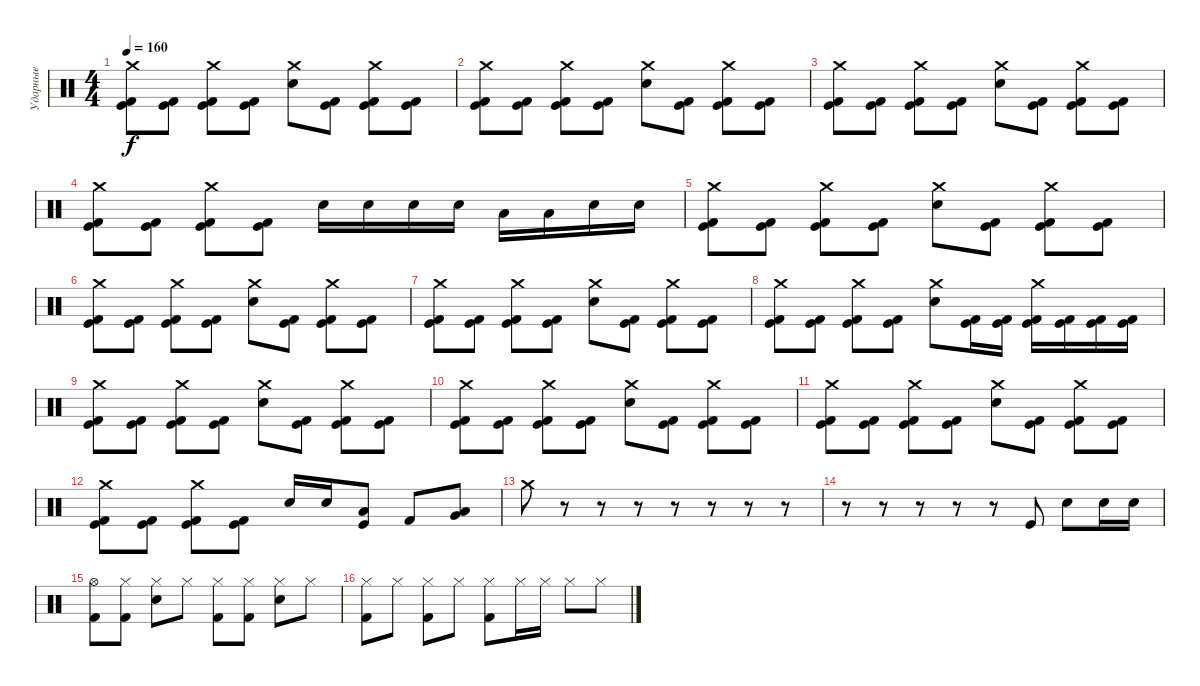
\track ("Ударные" "Ударные") {instrument percussion}
\staff {score}
\articulation defaults
\ts (4 4)
\tempo 160
\clef neutral
\ks c
("Crash medium (hit)" "Kick (hit)" "Kick (hit) 2").8{dy f} ("Kick (hit)" "Kick (hit) 2").8 ("Crash medium (hit)" "Kick (hit)" "Kick (hit) 2").8 ("Kick (hit)" "Kick (hit) 2").8 ("Crash medium (hit)" "Snare (hit) 2").8 ("Kick (hit)" "Kick (hit) 2").8 ("Crash medium (hit)" "Kick (hit)" "Kick (hit) 2").8 ("Kick (hit)" "Kick (hit) 2").8 |
("Crash medium (hit)" "Kick (hit)" "Kick (hit) 2").8 ("Kick (hit)" "Kick (hit) 2").8 ("Crash medium (hit)" "Kick (hit)" "Kick (hit) 2").8 ("Kick (hit)" "Kick (hit) 2").8 ("Crash medium (hit)" "Snare (hit) 2").8 ("Kick (hit)" "Kick (hit) 2").8 ("Crash medium (hit)" "Kick (hit)" "Kick (hit) 2").8 ("Kick (hit)" "Kick (hit) 2").8 |
("Crash medium (hit)" "Kick (hit)" "Kick (hit) 2").8 ("Kick (hit)" "Kick (hit) 2").8 ("Crash medium (hit)" "Kick (hit)" "Kick (hit) 2").8 ("Kick (hit)" "Kick (hit) 2").8 ("Crash medium (hit)" "Snare (hit) 2").8 ("Kick (hit)" "Kick (hit) 2").8 ("Crash medium (hit)" "Kick (hit)" "Kick (hit) 2").8 ("Kick (hit)" "Kick (hit) 2").8 |
("Crash medium (hit)" "Kick (hit)" "Kick (hit) 2").8 ("Kick (hit)" "Kick (hit) 2").8 ("Crash medium (hit)" "Kick (hit)" "Kick (hit) 2").8 ("Kick (hit)" "Kick (hit) 2").8 "Snare (hit) 2".16 "Snare (hit) 2".16 "Snare (hit) 2".16 "Snare (hit) 2".16 "Low Tom (hit)".16 "Low Tom (hit)".16 "Snare (hit) 2".16 "Snare (hit) 2".16 |
("Crash medium (hit)" "Kick (hit)" "Kick (hit) 2").8 ("Kick (hit)" "Kick (hit) 2").8 ("Crash medium (hit)" "Kick (hit)" "Kick (hit) 2").8 ("Kick (hit)" "Kick (hit) 2").8 ("Crash medium (hit)" "Snare (hit) 2").8 ("Kick (hit)" "Kick (hit) 2").8 ("Crash medium (hit)" "Kick (hit)" "Kick (hit) 2").8 ("Kick (hit)" "Kick (hit) 2").8 |
("Crash medium (hit)" "Kick (hit)" "Kick (hit) 2").8 ("Kick (hit)" "Kick (hit) 2").8 ("Crash medium (hit)" "Kick (hit)" "Kick (hit) 2").8 ("Kick (hit)" "Kick (hit) 2").8 ("Crash medium (hit)" "Snare (hit) 2").8 ("Kick (hit)" "Kick (hit) 2").8 ("Crash medium (hit)" "Kick (hit)" "Kick (hit) 2").8 ("Kick (hit)" "Kick (hit) 2").8 |
("Crash medium (hit)" "Kick (hit)" "Kick (hit) 2").8 ("Kick (hit)" "Kick (hit) 2").8 ("Crash medium (hit)" "Kick (hit)" "Kick (hit) 2").8 ("Kick (hit)" "Kick (hit) 2").8 ("Crash medium (hit)" "Snare (hit) 2").8 ("Kick (hit)" "Kick (hit) 2").8 ("Crash medium (hit)" "Kick (hit)" "Kick (hit) 2").8 ("Kick (hit)" "Kick (hit) 2").8 |
("Crash medium (hit)" "Kick (hit)" "Kick (hit) 2").8 ("Kick (hit)" "Kick (hit) 2").8 ("Crash medium (hit)" "Kick (hit)" "Kick (hit) 2").8 ("Kick (hit)" "Kick (hit) 2").8 ("Crash medium (hit)" "Snare (hit) 2").8 ("Kick (hit)" "Kick (hit) 2").16 ("Kick (hit)" "Kick (hit) 2").16 ("Crash medium (hit)" "Kick (hit)" "Kick (hit) 2").16 ("Kick (hit)" "Kick (hit) 2").16 ("Kick (hit)" "Kick (hit) 2").16 ("Kick (hit)" "Kick (hit) 2").16 |
("Crash medium (hit)" "Kick (hit)" "Kick (hit) 2").8 ("Kick (hit)" "Kick (hit) 2").8 ("Crash medium (hit)" "Kick (hit)" "Kick (hit) 2").8 ("Kick (hit)" "Kick (hit) 2").8 ("Crash medium (hit)" "Snare (hit) 2").8 ("Kick (hit)" "Kick (hit) 2").8 ("Crash medium (hit)" "Kick (hit)" "Kick (hit) 2").8 ("Kick (hit)" "Kick (hit) 2").8 |
("Crash medium (hit)" "Kick (hit)" "Kick (hit) 2").8 ("Kick (hit)" "Kick (hit) 2").8 ("Crash medium (hit)" "Kick (hit)" "Kick (hit) 2").8 ("Kick (hit)" "Kick (hit) 2").8 ("Crash medium (hit)" "Snare (hit) 2").8 ("Kick (hit)" "Kick (hit) 2").8 ("Crash medium (hit)" "Kick (hit)" "Kick (hit) 2").8 ("Kick (hit)" "Kick (hit) 2").8 |
("Crash medium (hit)" "Kick (hit)" "Kick (hit) 2").8 ("Kick (hit)" "Kick (hit) 2").8 ("Crash medium (hit)" "Kick (hit)" "Kick (hit) 2").8 ("Kick (hit)" "Kick (hit) 2").8 ("Crash medium (hit)" "Snare (hit) 2").8 ("Kick (hit)" "Kick (hit) 2").8 ("Crash medium (hit)" "Kick (hit)" "Kick (hit) 2").8 ("Kick (hit)" "Kick (hit) 2").8 |
("Crash medium (hit)" "Kick (hit)" "Kick (hit) 2").8 ("Kick (hit)" "Kick (hit) 2").8 ("Crash medium (hit)" "Kick (hit)" "Kick (hit) 2").8 ("Kick (hit)" "Kick (hit) 2").8 "Snare (hit) 2".16 "Snare (hit) 2".16 ("Low Tom (hit)" "Kick (hit)").8 "Kick (hit) 2".8 ("Low Tom (hit)" "Very Low Tom (hit)").8 |
"Crash medium (hit)".8 r.8 r.8 r.8 r.8 r.8 r.8 r.8 |
r.8 r.8 r.8 r.8 r.8 "Kick (hit)".8 "Snare (hit) 2".8 "Snare (hit) 2".16 "Snare (hit) 2".16 |
("Hi-Hat (open)" "Kick (hit) 2").8 ("Hi-Hat (closed)" "Kick (hit) 2").8 ("Hi-Hat (closed)" "Snare (hit) 2").8 "Hi-Hat (closed)".8 ("Hi-Hat (closed)" "Kick (hit) 2").8 ("Hi-Hat (closed)" "Kick (hit) 2").8 ("Hi-Hat (closed)" "Snare (hit) 2").8 "Hi-Hat (closed)".8 |
("Hi-Hat (closed)" "Kick (hit) 2").8 "Hi-Hat (closed)".8 ("Hi-Hat (closed)" "Kick (hit) 2").8 "Hi-Hat (closed)".8 ("Hi-Hat (closed)" "Kick (hit) 2").8 "Hi-Hat (closed)".16 "Hi-Hat (closed)".16 "Hi-Hat (closed)".8 "Hi-Hat (closed)".8
